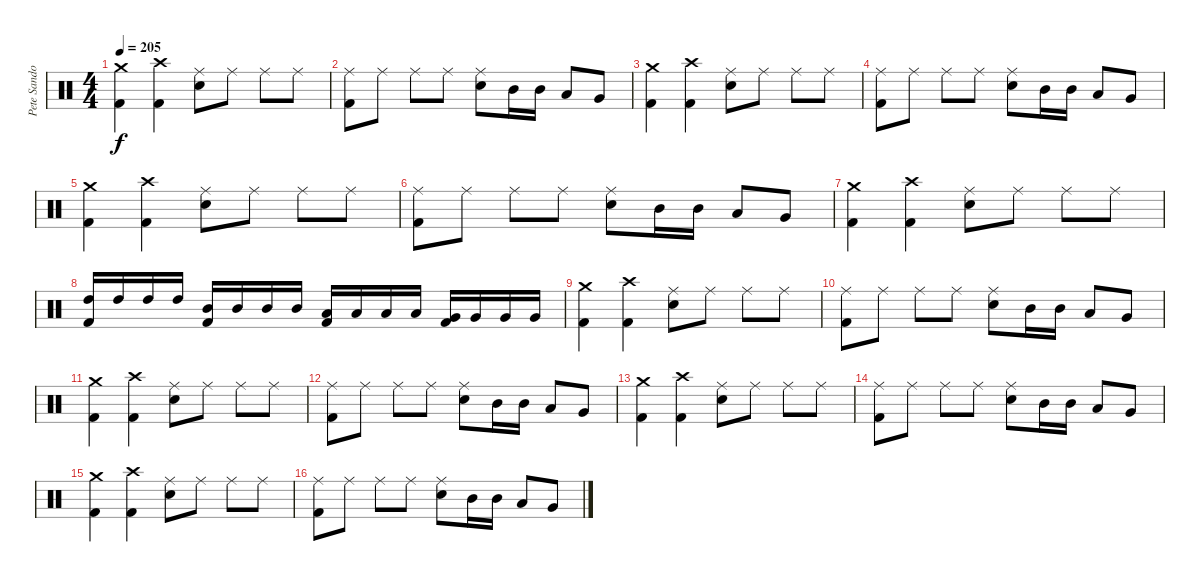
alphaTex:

\track ("Pete Sandoval" "Pete Sando") {instrument percussion}
\staff {score}
\articulation defaults
\ts (4 4)
\tempo 205
\clef neutral
\ks c
("Crash medium (hit)" "Kick (hit) 2").4{dy f} ("Crash high (hit)" "Kick (hit) 2").4 ("Electric Snare (hit)" "Ride (middle)").8 "Ride (middle)".8 "Ride (middle)".8 "Ride (middle)".8 |
("Kick (hit) 2" "Ride (middle)").8 "Ride (middle)".8 "Ride (middle)".8 "Ride (middle)".8 ("Electric Snare (hit)" "Ride (middle)").8 "Mid Tom (hit)".16 "Mid Tom (hit)".16 "Low Tom (hit)".8 "Very Low Tom (hit)".8 |
("Crash medium (hit)" "Kick (hit) 2").4 ("Crash high (hit)" "Kick (hit) 2").4 ("Electric Snare (hit)" "Ride (middle)").8 "Ride (middle)".8 "Ride (middle)".8 "Ride (middle)".8 |
("Kick (hit) 2" "Ride (middle)").8 "Ride (middle)".8 "Ride (middle)".8 "Ride (middle)".8 ("Electric Snare (hit)" "Ride (middle)").8 "Mid Tom (hit)".16 "Mid Tom (hit)".16 "Low Tom (hit)".8 "Very Low Tom (hit)".8 |
("Crash medium (hit)" "Kick (hit) 2").4 ("Crash high (hit)" "Kick (hit) 2").4 ("Electric Snare (hit)" "Ride (middle)").8 "Ride (middle)".8 "Ride (middle)".8 "Ride (middle)".8 |
("Kick (hit) 2" "Ride (middle)").8 "Ride (middle)".8 "Ride (middle)".8 "Ride (middle)".8 ("Electric Snare (hit)" "Ride (middle)").8 "Mid Tom (hit)".16 "Mid Tom (hit)".16 "Low Tom (hit)".8 "Very Low Tom (hit)".8 |
("Crash medium (hit)" "Kick (hit) 2").4 ("Crash high (hit)" "Kick (hit) 2").4 ("Electric Snare (hit)" "Ride (middle)").8 "Ride (middle)".8 "Ride (middle)".8 "Ride (middle)".8 |
("Kick (hit) 2" "High Tom (hit)").16 "High Tom (hit)".16 "High Tom (hit)".16 "High Tom (hit)".16 ("Kick (hit) 2" "Mid Tom (hit)").16 "Mid Tom (hit)".16 "Mid Tom (hit)".16 "Mid Tom (hit)".16 ("Kick (hit) 2" "Low Tom (hit)").16 "Low Tom (hit)".16 "Low Tom (hit)".16 "Low Tom (hit)".16 ("Kick (hit) 2" "Very Low Tom (hit)").16 "Very Low Tom (hit)".16 "Very Low Tom (hit)".16 "Very Low Tom (hit)".16 |
("Crash medium (hit)" "Kick (hit) 2").4 ("Crash high (hit)" "Kick (hit) 2").4 ("Electric Snare (hit)" "Ride (middle)").8 "Ride (middle)".8 "Ride (middle)".8 "Ride (middle)".8 |
("Kick (hit) 2" "Ride (middle)").8 "Ride (middle)".8 "Ride (middle)".8 "Ride (middle)".8 ("Electric Snare (hit)" "Ride (middle)").8 "Mid Tom (hit)".16 "Mid Tom (hit)".16 "Low Tom (hit)".8 "Very Low Tom (hit)".8 |
("Crash medium (hit)" "Kick (hit) 2").4 ("Crash high (hit)" "Kick (hit) 2").4 ("Electric Snare (hit)" "Ride (middle)").8 "Ride (middle)".8 "Ride (middle)".8 "Ride (middle)".8 |
("Kick (hit) 2" "Ride (middle)").8 "Ride (middle)".8 "Ride (middle)".8 "Ride (middle)".8 ("Electric Snare (hit)" "Ride (middle)").8 "Mid Tom (hit)".16 "Mid Tom (hit)".16 "Low Tom (hit)".8 "Very Low Tom (hit)".8 |
("Crash medium (hit)" "Kick (hit) 2").4 ("Crash high (hit)" "Kick (hit) 2").4 ("Electric Snare (hit)" "Ride (middle)").8 "Ride (middle)".8 "Ride (middle)".8 "Ride (middle)".8 |
("Kick (hit) 2" "Ride (middle)").8 "Ride (middle)".8 "Ride (middle)".8 "Ride (middle)".8 ("Electric Snare (hit)" "Ride (middle)").8 "Mid Tom (hit)".16 "Mid Tom (hit)".16 "Low Tom (hit)".8 "Very Low Tom (hit)".8 |
("Crash medium (hit)" "Kick (hit) 2").4 ("Crash high (hit)" "Kick (hit) 2").4 ("Electric Snare (hit)" "Ride (middle)").8 "Ride (middle)".8 "Ride (middle)".8 "Ride (middle)".8 |
("Kick (hit) 2" "Ride (middle)").8 "Ride (middle)".8 "Ride (middle)".8 "Ride (middle)".8 ("Electric Snare (hit)" "Ride (middle)").8 "Mid Tom (hit)".16 "Mid Tom (hit)".16 "Low Tom (hit)".8 "Very Low Tom (hit)".8
